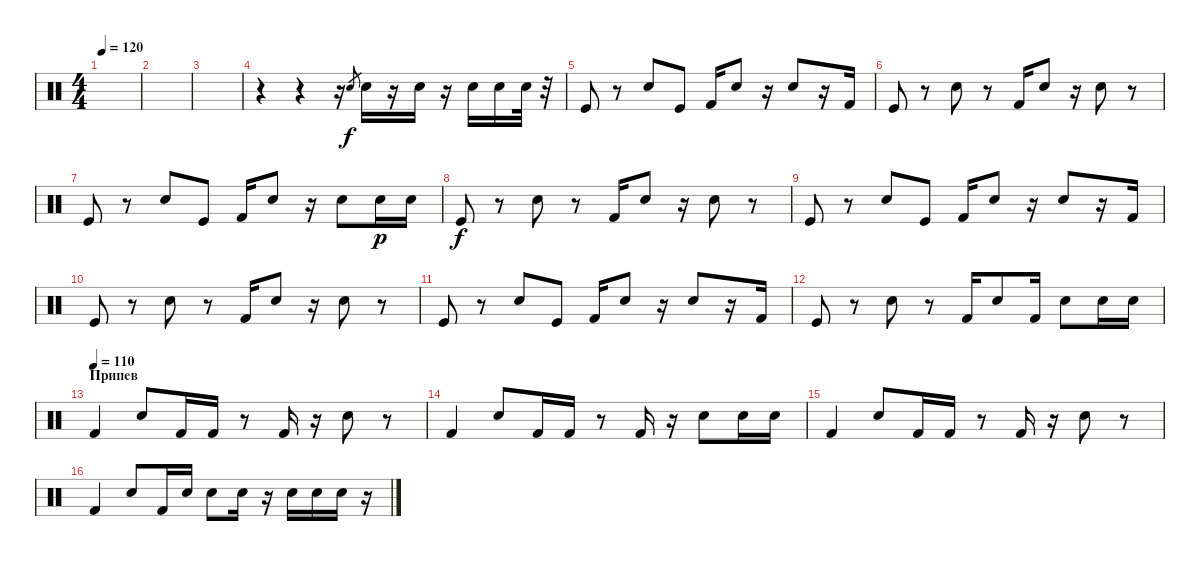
\track "" {instrument percussion}
\staff {score}
\articulation defaults
\ts (4 4)
\tempo 120
\clef neutral
\ks c
|
|
|
r.4 r.4 r.16 "Electric Snare (hit)".8{gr} "Electric Snare (hit)".16 r.16 "Electric Snare (hit)".16 r.16 "Electric Snare (hit)".16 "Electric Snare (hit)".16 "Electric Snare (hit)".32 r.32 |
"Kick (hit)".8 r.8 "Electric Snare (hit)".8 "Kick (hit)".8 "Kick (hit) 2".16 "Electric Snare (hit)".8 r.16 "Electric Snare (hit)".8 r.16 "Kick (hit) 2".16 |
"Kick (hit)".8 r.8 "Electric Snare (hit)".8 r.8 "Kick (hit) 2".16 "Electric Snare (hit)".8 r.16 "Electric Snare (hit)".8 r.8 |
"Kick (hit)".8 r.8 "Electric Snare (hit)".8 "Kick (hit)".8 "Kick (hit) 2".16 "Electric Snare (hit)".8 r.16 "Electric Snare (hit)".8 "Electric Snare (hit)".16{dy p} "Electric Snare (hit)".16 |
"Kick (hit)".8{dy f} r.8 "Electric Snare (hit)".8 r.8 "Kick (hit) 2".16 "Electric Snare (hit)".8 r.16 "Electric Snare (hit)".8 r.8 |
"Kick (hit)".8 r.8 "Electric Snare (hit)".8 "Kick (hit)".8 "Kick (hit) 2".16 "Electric Snare (hit)".8 r.16 "Electric Snare (hit)".8 r.16 "Kick (hit) 2".16 |
"Kick (hit)".8 r.8 "Electric Snare (hit)".8 r.8 "Kick (hit) 2".16 "Electric Snare (hit)".8 r.16 "Electric Snare (hit)".8 r.8 |
"Kick (hit)".8 r.8 "Electric Snare (hit)".8 "Kick (hit)".8 "Kick (hit) 2".16 "Electric Snare (hit)".8 r.16 "Electric Snare (hit)".8 r.16 "Kick (hit) 2".16 |
"Kick (hit)".8 r.8 "Electric Snare (hit)".8 r.8 "Kick (hit) 2".16 "Electric Snare (hit)".8 "Kick (hit) 2".16 "Electric Snare (hit)".8 "Electric Snare (hit)".16 "Electric Snare (hit)".16 |
\section ("" "Припев")
\tempo (110)
"Kick (hit) 2".4 "Electric Snare (hit)".8 "Kick (hit) 2".16 "Kick (hit) 2".16 r.8 "Kick (hit) 2".16 r.16 "Electric Snare (hit)".8 r.8 |
"Kick (hit) 2".4 "Electric Snare (hit)".8 "Kick (hit) 2".16 "Kick (hit) 2".16 r.8 "Kick (hit) 2".16 r.16 "Electric Snare (hit)".8 "Electric Snare (hit)".16 "Electric Snare (hit)".16 |
"Kick (hit) 2".4 "Electric Snare (hit)".8 "Kick (hit) 2".16 "Kick (hit) 2".16 r.8 "Kick (hit) 2".16 r.16 "Electric Snare (hit)".8 r.8 |
"Kick (hit) 2".4 "Electric Snare (hit)".8 "Kick (hit) 2".16 "Electric Snare (hit)".16 "Electric Snare (hit)".8 "Electric Snare (hit)".16 r.16 "Electric Snare (hit)".16 "Electric Snare (hit)".16 "Electric Snare (hit)".16 r.16
